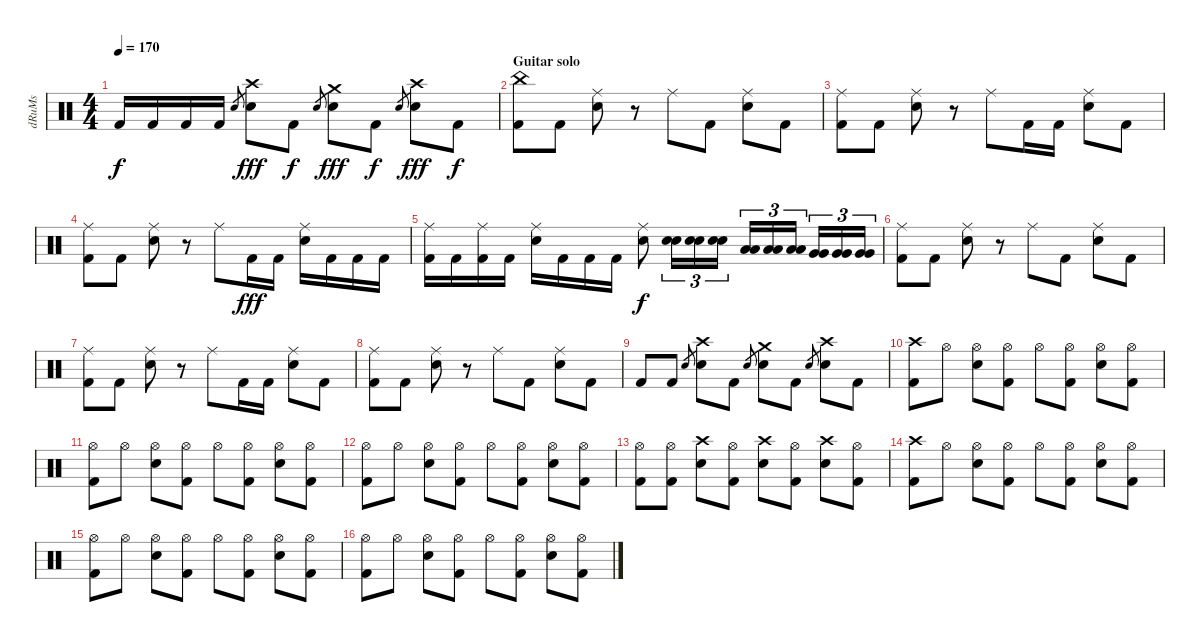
\track ("dRuMs" "dRuMs") {instrument percussion}
\staff {score}
\articulation defaults
\ts (4 4)
\tempo 170
\clef neutral
\ks c "Kick (hit) 2".16{dy f} "Kick (hit) 2".16 "Kick (hit) 2".16 "Kick (hit) 2".16 "Electric Snare (hit)".8{gr}
("Crash high (hit)" "Electric Snare (hit)").8{dy fff} "Kick (hit) 2".8{dy f} "Electric Snare (hit)".8{gr} ("Crash medium (hit)" "Electric Snare (hit)").8{dy fff} "Kick (hit) 2".8{dy f} "Electric Snare (hit)".8{gr} ("Crash high (hit)" "Electric Snare (hit)").8{dy fff} "Kick (hit) 2".8{dy f} |
\section ("" "Guitar solo")
("China (hit)" "Kick (hit) 2").8 "Kick (hit) 2".8 ("Ride (middle)" "Electric Snare (hit)").8 r.8 "Ride (middle)".8 "Kick (hit) 2".8 ("Ride (middle)" "Electric Snare (hit)").8 "Kick (hit) 2".8 |
("Ride (middle)" "Kick (hit) 2").8 "Kick (hit) 2".8 ("Ride (middle)" "Electric Snare (hit)").8 r.8 "Ride (middle)".8 "Kick (hit) 2".16 "Kick (hit) 2".16 ("Ride (middle)" "Electric Snare (hit)").8 "Kick (hit) 2".8 |
("Ride (middle)" "Kick (hit) 2").8 "Kick (hit) 2".8 ("Ride (middle)" "Electric Snare (hit)").8 r.8 "Ride (middle)".8 "Kick (hit) 2".16{dy fff} "Kick (hit) 2".16 ("Ride (middle)" "Electric Snare (hit)").16 "Kick (hit) 2".16 "Kick (hit) 2".16 "Kick (hit) 2".16 |
("Ride (middle)" "Kick (hit) 2").16 "Kick (hit) 2".16 ("Ride (middle)" "Kick (hit) 2").16 "Kick (hit) 2".16 ("Ride (middle)" "Electric Snare (hit)").16 "Kick (hit) 2".16 "Kick (hit) 2".16 "Kick (hit) 2".16 ("Ride (middle)" "Electric Snare (hit)").8{dy f} ("Electric Snare (hit)" "Electric Snare (hit)").16{tu (3 2)} ("Electric Snare (hit)" "Electric Snare (hit)").16{tu (3 2)} ("Electric Snare (hit)" "Electric Snare (hit)").16{tu (3 2)} ("Low Tom (hit)" "Low Tom (hit)").16{tu (3 2)} ("Low Tom (hit)" "Low Tom (hit)").16{tu (3 2)} ("Low Tom (hit)" "Low Tom (hit)").16{tu (3 2)} ("Very Low Tom (hit)" "Very Low Tom (hit)").16{tu (3 2)} ("Very Low Tom (hit)" "Very Low Tom (hit)").16{tu (3 2)} ("Very Low Tom (hit)" "Very Low Tom (hit)").16{tu (3 2)} |
("Ride (middle)" "Kick (hit) 2").8 "Kick (hit) 2".8 ("Ride (middle)" "Electric Snare (hit)").8 r.8 "Ride (middle)".8 "Kick (hit) 2".8 ("Ride (middle)" "Electric Snare (hit)").8 "Kick (hit) 2".8 |
("Ride (middle)" "Kick (hit) 2").8 "Kick (hit) 2".8 ("Ride (middle)" "Electric Snare (hit)").8 r.8 "Ride (middle)".8 "Kick (hit) 2".16 "Kick (hit) 2".16 ("Ride (middle)" "Electric Snare (hit)").8 "Kick (hit) 2".8 |
("Ride (middle)" "Kick (hit) 2").8 "Kick (hit) 2".8 ("Ride (middle)" "Electric Snare (hit)").8 r.8 "Ride (middle)".8 "Kick (hit) 2".8 ("Ride (middle)" "Electric Snare (hit)").8 "Kick (hit) 2".8 |
"Kick (hit) 2".8 "Kick (hit) 2".8 "Electric Snare (hit)".8{gr} ("Crash high (hit)" "Electric Snare (hit)").8 "Kick (hit) 2".8 "Electric Snare (hit)".8{gr} ("Crash medium (hit)" "Electric Snare (hit)").8 "Kick (hit) 2".8 "Electric Snare (hit)".8{gr} ("Crash high (hit)" "Electric Snare (hit)").8 "Kick (hit) 2".8 |
("Crash high (hit)" "Kick (hit) 2").8 "Hi-Hat (open)".8 ("Hi-Hat (open)" "Electric Snare (hit)").8 ("Hi-Hat (open)" "Kick (hit) 2").8 "Hi-Hat (open)".8 ("Hi-Hat (open)" "Kick (hit) 2").8 ("Hi-Hat (open)" "Electric Snare (hit)").8 ("Hi-Hat (open)" "Kick (hit) 2").8 |
("Hi-Hat (open)" "Kick (hit) 2").8 "Hi-Hat (open)".8 ("Hi-Hat (open)" "Electric Snare (hit)").8 ("Hi-Hat (open)" "Kick (hit) 2").8 "Hi-Hat (open)".8 ("Hi-Hat (open)" "Kick (hit) 2").8 ("Hi-Hat (open)" "Electric Snare (hit)").8 ("Hi-Hat (open)" "Kick (hit) 2").8 |
("Hi-Hat (open)" "Kick (hit) 2").8 "Hi-Hat (open)".8 ("Hi-Hat (open)" "Electric Snare (hit)").8 ("Hi-Hat (open)" "Kick (hit) 2").8 "Hi-Hat (open)".8 ("Hi-Hat (open)" "Kick (hit) 2").8 ("Hi-Hat (open)" "Electric Snare (hit)").8 ("Hi-Hat (open)" "Kick (hit) 2").8 |
("Hi-Hat (open)" "Kick (hit) 2").8 ("Hi-Hat (open)" "Kick (hit) 2").8 ("Crash high (hit)" "Electric Snare (hit)").8 ("Hi-Hat (open)" "Kick (hit) 2").8 ("Crash high (hit)" "Electric Snare (hit)").8 ("Hi-Hat (open)" "Kick (hit) 2").8 ("Crash high (hit)" "Electric Snare (hit)").8 ("Hi-Hat (open)" "Kick (hit) 2").8 |
("Crash high (hit)" "Kick (hit) 2").8 "Hi-Hat (open)".8 ("Hi-Hat (open)" "Electric Snare (hit)").8 ("Hi-Hat (open)" "Kick (hit) 2").8 "Hi-Hat (open)".8 ("Hi-Hat (open)" "Kick (hit) 2").8 ("Hi-Hat (open)" "Electric Snare (hit)").8 ("Hi-Hat (open)" "Kick (hit) 2").8 |
("Hi-Hat (open)" "Kick (hit) 2").8 "Hi-Hat (open)".8 ("Hi-Hat (open)" "Electric Snare (hit)").8 ("Hi-Hat (open)" "Kick (hit) 2").8 "Hi-Hat (open)".8 ("Hi-Hat (open)" "Kick (hit) 2").8 ("Hi-Hat (open)" "Electric Snare (hit)").8 ("Hi-Hat (open)" "Kick (hit) 2").8 |
("Hi-Hat (open)" "Kick (hit) 2").8 "Hi-Hat (open)".8 ("Hi-Hat (open)" "Electric Snare (hit)").8 ("Hi-Hat (open)" "Kick (hit) 2").8 "Hi-Hat (open)".8 ("Hi-Hat (open)" "Kick (hit) 2").8 ("Hi-Hat (open)" "Electric Snare (hit)").8 ("Hi-Hat (open)" "Kick (hit) 2").8
